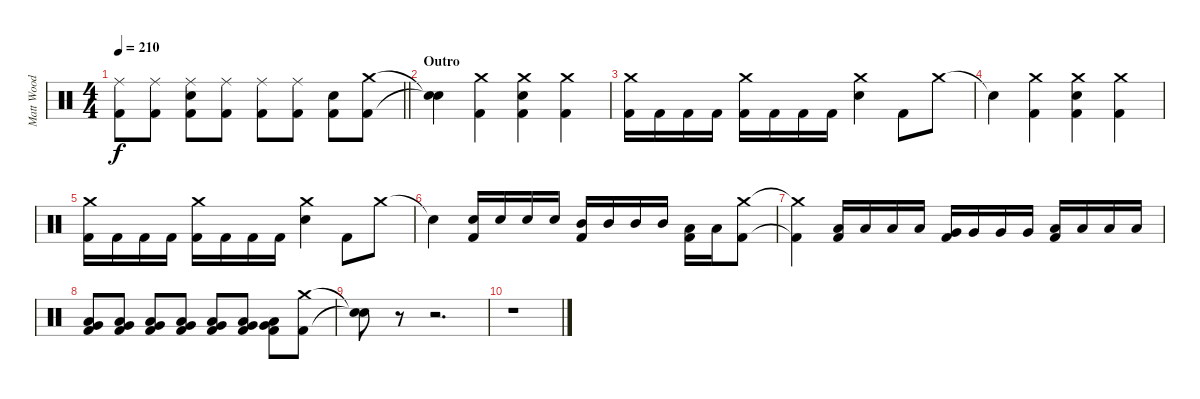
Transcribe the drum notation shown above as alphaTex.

\track ("Matt Wood" "Matt Wood") {instrument percussion}
\staff {score}
\articulation defaults
\ts (4 4)
\tempo 210
\clef neutral
\barLineRight lightlight
\ks c
("Ride (middle)" "Kick (hit) 2").8{dy f} ("Ride (middle)" "Kick (hit) 2").8 ("Ride (middle)" "Snare (hit) 2" "Kick (hit) 2").8 ("Ride (middle)" "Kick (hit) 2").8 ("Ride (middle)" "Kick (hit) 2").8 ("Ride (middle)" "Kick (hit) 2").8 ("Snare (hit) 2" "Kick (hit) 2").8 ("Crash medium (hit)" "Kick (hit) 2").8 |
\section ("" "Outro")
("Snare (hit)"{t} "Snare (hit)"{t}).4 ("Crash medium (hit)" "Kick (hit) 2").4 ("Crash medium (hit)" "Snare (hit) 2" "Kick (hit) 2").4 ("Crash medium (hit)" "Kick (hit) 2").4 |
("Crash medium (hit)" "Kick (hit) 2").16 "Kick (hit) 2".16 "Kick (hit) 2".16 "Kick (hit) 2".16 ("Crash medium (hit)" "Kick (hit) 2").16 "Kick (hit) 2".16 "Kick (hit) 2".16 "Kick (hit) 2".16 ("Crash medium (hit)" "Snare (hit) 2").4 "Kick (hit) 2".8 "Crash medium (hit)".8 |
"Snare (hit)"{t}.4 ("Crash medium (hit)" "Kick (hit) 2").4 ("Crash medium (hit)" "Snare (hit) 2" "Kick (hit) 2").4 ("Crash medium (hit)" "Kick (hit) 2").4 |
("Crash medium (hit)" "Kick (hit) 2").16 "Kick (hit) 2".16 "Kick (hit) 2".16 "Kick (hit) 2".16 ("Crash medium (hit)" "Kick (hit) 2").16 "Kick (hit) 2".16 "Kick (hit) 2".16 "Kick (hit) 2".16 ("Crash medium (hit)" "Snare (hit) 2").4 "Kick (hit) 2".8 "Crash medium (hit)".8 |
"Snare (hit)"{t}.4 ("Snare (hit) 2" "Kick (hit) 2").16 "Snare (hit) 2".16 "Snare (hit) 2".16 "Snare (hit) 2".16 ("Mid Tom (hit)" "Kick (hit) 2").16 "Mid Tom (hit)".16 "Mid Tom (hit)".16 "Mid Tom (hit)".16 ("Low Tom (hit)" "Kick (hit) 2").16 "Low Tom (hit)".16 ("Crash medium (hit)" "Kick (hit) 2").8 |
("Crash medium (hit)"{t} "Kick (hit) 2"{t}).4 ("Low Tom (hit)" "Kick (hit) 2").16 "Low Tom (hit)".16 "Low Tom (hit)".16 "Low Tom (hit)".16 ("Very Low Tom (hit)" "Kick (hit) 2").16 "Very Low Tom (hit)".16 "Very Low Tom (hit)".16 "Very Low Tom (hit)".16 ("Low Floor Tom (hit)" "Kick (hit) 2").16 "Low Floor Tom (hit)".16 "Low Floor Tom (hit)".16 "Low Floor Tom (hit)".16 |
("Low Tom (hit)" "Very Low Tom (hit)" "Kick (hit) 2").8 ("Low Tom (hit)" "Very Low Tom (hit)" "Kick (hit) 2").8 ("Low Tom (hit)" "Very Low Tom (hit)" "Kick (hit) 2").8 ("Low Tom (hit)" "Very Low Tom (hit)" "Kick (hit) 2").8 ("Low Tom (hit)" "Very Low Tom (hit)" "Kick (hit) 2").8 ("Low Tom (hit)" "Very Low Tom (hit)" "Kick (hit) 2").8 ("Low Tom (hit)" "Very Low Tom (hit)" "Kick (hit) 2").8 ("Crash medium (hit)" "Kick (hit) 2").8 |
("Snare (hit)"{t} "Snare (hit)"{t}).8 r.8 r.2{d} |
r.1
